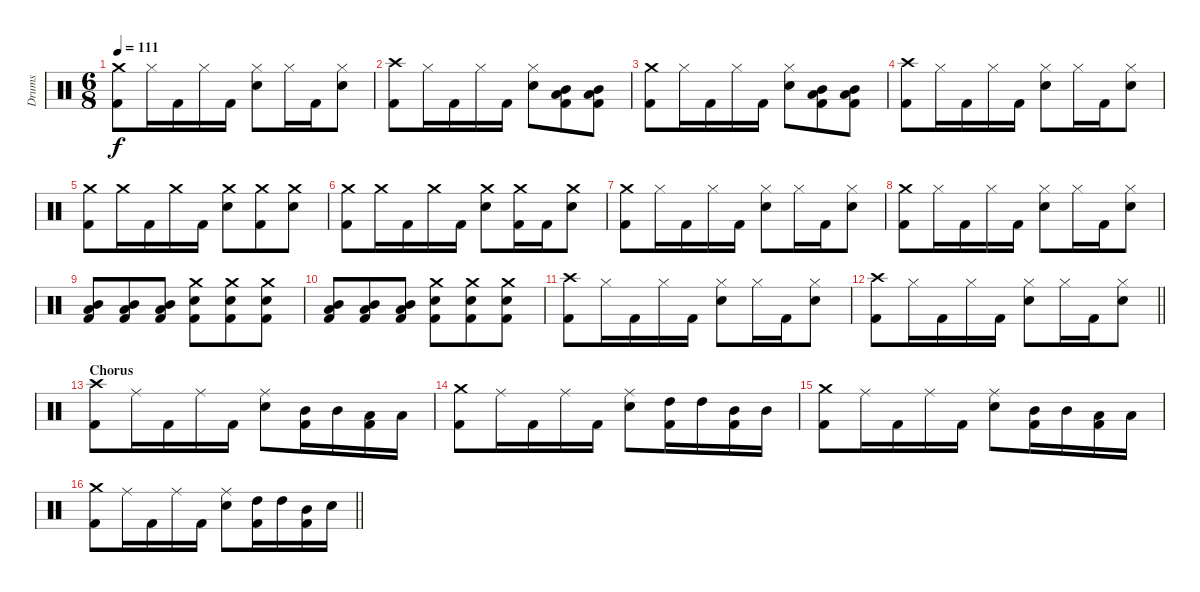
\track ("Drums" "Drums") {instrument percussion}
\staff {score}
\articulation defaults
\ts (6 8)
\tempo 111
\clef neutral
\ks c
("Crash medium (hit)" "Kick (hit) 2").8{dy f} "Hi-Hat (closed)".16 "Kick (hit) 2".16 "Hi-Hat (closed)".16 "Kick (hit) 2".16 ("Snare (hit) 2" "Hi-Hat (closed)").8 "Hi-Hat (closed)".16 "Kick (hit) 2".16 ("Hi-Hat (closed)" "Snare (hit) 2").8 |
("Crash high (hit)" "Kick (hit) 2").8 "Hi-Hat (closed)".16 "Kick (hit) 2".16 "Hi-Hat (closed)".16 "Kick (hit) 2".16 ("Hi-Hat (closed)" "Snare (hit) 2").8 ("Low Tom (hit)" "Mid Tom (hit)" "Kick (hit) 2").8 ("Mid Tom (hit)" "Low Tom (hit)" "Kick (hit) 2").8 |
("Crash medium (hit)" "Kick (hit) 2").8 "Hi-Hat (closed)".16 "Kick (hit) 2".16 "Hi-Hat (closed)".16 "Kick (hit) 2".16 ("Hi-Hat (closed)" "Snare (hit) 2").8 ("Low Tom (hit)" "Mid Tom (hit)" "Kick (hit) 2").8 ("Mid Tom (hit)" "Low Tom (hit)" "Kick (hit) 2").8 |
("Crash high (hit)" "Kick (hit) 2").8 "Hi-Hat (closed)".16 "Kick (hit) 2".16 "Hi-Hat (closed)".16 "Kick (hit) 2".16 ("Snare (hit) 2" "Hi-Hat (closed)").8 "Hi-Hat (closed)".16 "Kick (hit) 2".16 ("Hi-Hat (closed)" "Snare (hit) 2").8 |
("Crash medium (hit)" "Kick (hit) 2").8 "Crash medium (hit)".16 "Kick (hit) 2".16 "Crash medium (hit)".16 "Kick (hit) 2".16 ("Crash medium (hit)" "Snare (hit) 2").8 ("Crash medium (hit)" "Kick (hit) 2").8 ("Crash medium (hit)" "Snare (hit) 2").8 |
("Crash medium (hit)" "Kick (hit) 2").8 "Crash medium (hit)".16 "Kick (hit) 2".16 "Crash medium (hit)".16 "Kick (hit) 2".16 ("Crash medium (hit)" "Snare (hit) 2").8 ("Crash medium (hit)" "Kick (hit) 2").16 "Kick (hit) 2".16 ("Crash medium (hit)" "Snare (hit) 2").8 |
("Crash medium (hit)" "Kick (hit) 2").8 "Hi-Hat (closed)".16 "Kick (hit) 2".16 "Hi-Hat (closed)".16 "Kick (hit) 2".16 ("Snare (hit) 2" "Hi-Hat (closed)").8 "Hi-Hat (closed)".16 "Kick (hit) 2".16 ("Hi-Hat (closed)" "Snare (hit) 2").8 |
("Crash medium (hit)" "Kick (hit) 2").8 "Hi-Hat (closed)".16 "Kick (hit) 2".16 "Hi-Hat (closed)".16 "Kick (hit) 2".16 ("Snare (hit) 2" "Hi-Hat (closed)").8 "Hi-Hat (closed)".16 "Kick (hit) 2".16 ("Hi-Hat (closed)" "Snare (hit) 2").8 |
("Kick (hit) 2" "Low Tom (hit)" "Mid Tom (hit)").8 ("Kick (hit) 2" "Low Tom (hit)" "Mid Tom (hit)").8 ("Kick (hit) 2" "Low Tom (hit)" "Mid Tom (hit)").8 ("Kick (hit) 2" "Snare (hit) 2" "Crash medium (hit)").8 ("Kick (hit) 2" "Snare (hit) 2" "Crash medium (hit)").8 ("Kick (hit) 2" "Snare (hit) 2" "Crash medium (hit)").8 |
("Kick (hit) 2" "Low Tom (hit)" "Mid Tom (hit)").8 ("Kick (hit) 2" "Low Tom (hit)" "Mid Tom (hit)").8 ("Kick (hit) 2" "Low Tom (hit)" "Mid Tom (hit)").8 ("Kick (hit) 2" "Snare (hit) 2" "Crash medium (hit)").8 ("Kick (hit) 2" "Snare (hit) 2" "Crash medium (hit)").8 ("Kick (hit) 2" "Snare (hit) 2" "Crash medium (hit)").8 |
("Crash high (hit)" "Kick (hit) 2").8 "Hi-Hat (closed)".16 "Kick (hit) 2".16 "Hi-Hat (closed)".16 "Kick (hit) 2".16 ("Snare (hit) 2" "Hi-Hat (closed)").8 "Hi-Hat (closed)".16 "Kick (hit) 2".16 ("Hi-Hat (closed)" "Snare (hit) 2").8 |
\barLineRight lightlight
("Crash high (hit)" "Kick (hit) 2").8 "Hi-Hat (closed)".16 "Kick (hit) 2".16 "Hi-Hat (closed)".16 "Kick (hit) 2".16 ("Snare (hit) 2" "Hi-Hat (closed)").8 "Hi-Hat (closed)".16 "Kick (hit) 2".16 ("Hi-Hat (closed)" "Snare (hit) 2").8 |
\section ("" "Chorus")
("Crash high (hit)" "Kick (hit) 2").8 "Ride (middle)".16 "Kick (hit) 2".16 "Ride (middle)".16 "Kick (hit) 2".16 ("Snare (hit) 2" "Ride (middle)").8 ("Kick (hit) 2" "Mid Tom (hit)").16 "Mid Tom (hit)".16 ("Low Tom (hit)" "Kick (hit) 2").16 "Low Tom (hit)".16 |
("Crash medium (hit)" "Kick (hit) 2").8 "Ride (middle)".16 "Kick (hit) 2".16 "Ride (middle)".16 "Kick (hit) 2".16 ("Snare (hit) 2" "Ride (middle)").8 ("Kick (hit) 2" "High Tom (hit)").16 "High Tom (hit)".16 ("Mid Tom (hit)" "Kick (hit) 2").16 "Mid Tom (hit)".16 |
("Crash medium (hit)" "Kick (hit) 2").8 "Ride (middle)".16 "Kick (hit) 2".16 "Ride (middle)".16 "Kick (hit) 2".16 ("Snare (hit) 2" "Ride (middle)").8 ("Kick (hit) 2" "Mid Tom (hit)").16 "Mid Tom (hit)".16 ("Low Tom (hit)" "Kick (hit) 2").16 "Low Tom (hit)".16 |
\barLineRight lightlight
("Crash medium (hit)" "Kick (hit) 2").8 "Ride (middle)".16 "Kick (hit) 2".16 "Ride (middle)".16 "Kick (hit) 2".16 ("Snare (hit) 2" "Ride (middle)").8 ("Kick (hit) 2" "High Tom (hit)").16 "High Tom (hit)".16 ("Mid Tom (hit)" "Kick (hit) 2").16 "Snare (hit) 2".16
